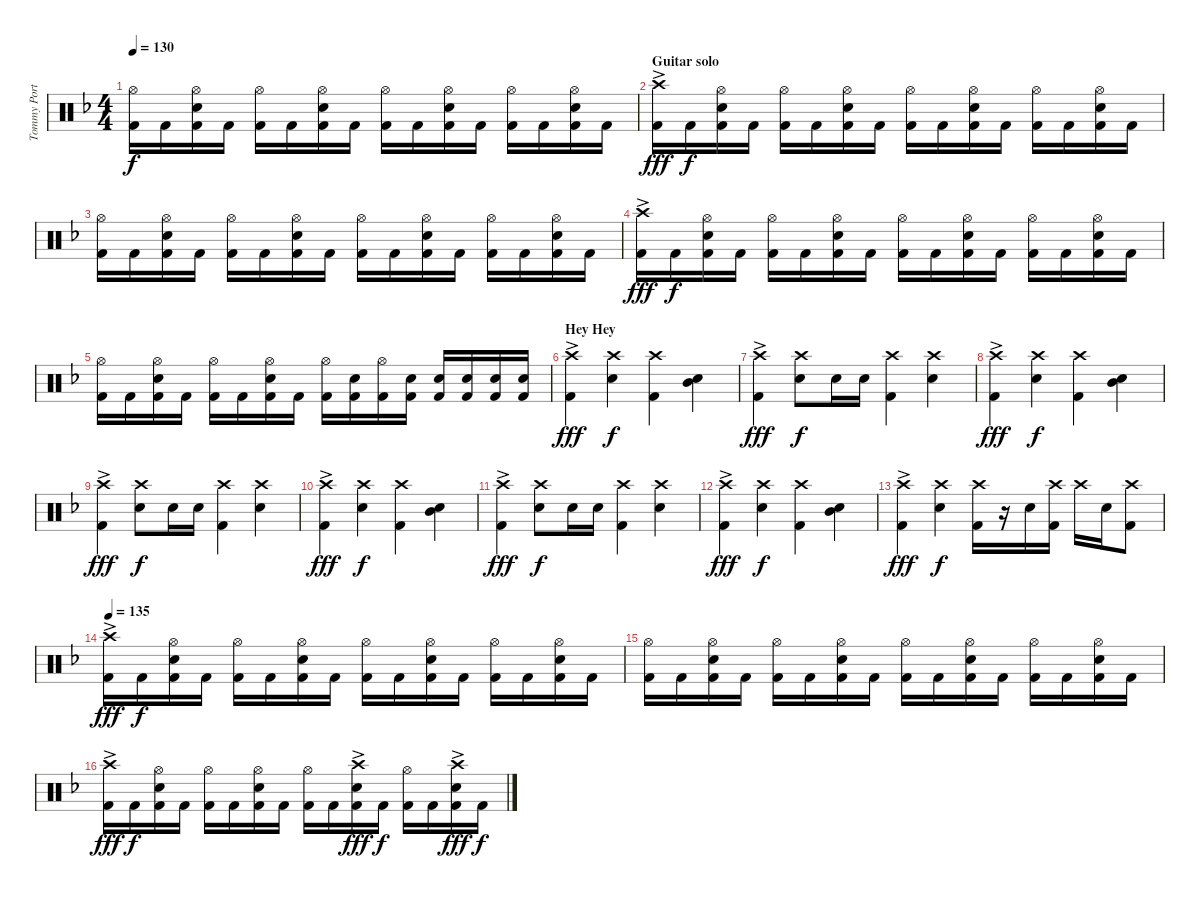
\track ("Tommy Portimo" "Tommy Port") {instrument percussion}
\staff {score}
\articulation defaults
\ts (4 4)
\tempo 130
\clef neutral
\ks dminor
("Hi-Hat (open)" "Kick (hit) 2").16{dy f} "Kick (hit) 2".16 ("Hi-Hat (open)" "Electric Snare (hit)" "Kick (hit) 2").16 "Kick (hit) 2".16 ("Hi-Hat (open)" "Kick (hit) 2").16 "Kick (hit) 2".16 ("Hi-Hat (open)" "Electric Snare (hit)" "Kick (hit) 2").16 "Kick (hit) 2".16 ("Hi-Hat (open)" "Kick (hit) 2").16 "Kick (hit) 2".16 ("Hi-Hat (open)" "Electric Snare (hit)" "Kick (hit) 2").16 "Kick (hit) 2".16 ("Hi-Hat (open)" "Kick (hit) 2").16 "Kick (hit) 2".16 ("Hi-Hat (open)" "Electric Snare (hit)" "Kick (hit) 2").16 "Kick (hit) 2".16 |
\section ("" "Guitar solo")
("Crash high (hit)"{ac} "Kick (hit) 2").16{dy fff} "Kick (hit) 2".16{dy f} ("Hi-Hat (open)" "Electric Snare (hit)" "Kick (hit) 2").16 "Kick (hit) 2".16 ("Hi-Hat (open)" "Kick (hit) 2").16 "Kick (hit) 2".16 ("Hi-Hat (open)" "Electric Snare (hit)" "Kick (hit) 2").16 "Kick (hit) 2".16 ("Hi-Hat (open)" "Kick (hit) 2").16 "Kick (hit) 2".16 ("Hi-Hat (open)" "Electric Snare (hit)" "Kick (hit) 2").16 "Kick (hit) 2".16 ("Hi-Hat (open)" "Kick (hit) 2").16 "Kick (hit) 2".16 ("Hi-Hat (open)" "Electric Snare (hit)" "Kick (hit) 2").16 "Kick (hit) 2".16 |
("Hi-Hat (open)" "Kick (hit) 2").16 "Kick (hit) 2".16 ("Hi-Hat (open)" "Electric Snare (hit)" "Kick (hit) 2").16 "Kick (hit) 2".16 ("Hi-Hat (open)" "Kick (hit) 2").16 "Kick (hit) 2".16 ("Hi-Hat (open)" "Electric Snare (hit)" "Kick (hit) 2").16 "Kick (hit) 2".16 ("Hi-Hat (open)" "Kick (hit) 2").16 "Kick (hit) 2".16 ("Hi-Hat (open)" "Electric Snare (hit)" "Kick (hit) 2").16 "Kick (hit) 2".16 ("Hi-Hat (open)" "Kick (hit) 2").16 "Kick (hit) 2".16 ("Hi-Hat (open)" "Electric Snare (hit)" "Kick (hit) 2").16 "Kick (hit) 2".16 |
("Crash high (hit)"{ac} "Kick (hit) 2").16{dy fff} "Kick (hit) 2".16{dy f} ("Hi-Hat (open)" "Electric Snare (hit)" "Kick (hit) 2").16 "Kick (hit) 2".16 ("Hi-Hat (open)" "Kick (hit) 2").16 "Kick (hit) 2".16 ("Hi-Hat (open)" "Electric Snare (hit)" "Kick (hit) 2").16 "Kick (hit) 2".16 ("Hi-Hat (open)" "Kick (hit) 2").16 "Kick (hit) 2".16 ("Hi-Hat (open)" "Electric Snare (hit)" "Kick (hit) 2").16 "Kick (hit) 2".16 ("Hi-Hat (open)" "Kick (hit) 2").16 "Kick (hit) 2".16 ("Hi-Hat (open)" "Electric Snare (hit)" "Kick (hit) 2").16 "Kick (hit) 2".16 |
("Hi-Hat (open)" "Kick (hit) 2").16 "Kick (hit) 2".16 ("Hi-Hat (open)" "Electric Snare (hit)" "Kick (hit) 2").16 "Kick (hit) 2".16 ("Hi-Hat (open)" "Kick (hit) 2").16 "Kick (hit) 2".16 ("Hi-Hat (open)" "Electric Snare (hit)" "Kick (hit) 2").16 "Kick (hit) 2".16 ("Hi-Hat (open)" "Kick (hit) 2").16 ("Electric Snare (hit)" "Kick (hit) 2").16 ("Hi-Hat (open)" "Kick (hit) 2").16 ("Electric Snare (hit)" "Kick (hit) 2").16 ("Electric Snare (hit)" "Kick (hit) 2").16 ("Electric Snare (hit)" "Kick (hit) 2").16 ("Electric Snare (hit)" "Kick (hit) 2").16 ("Electric Snare (hit)" "Kick (hit) 2").16 |
\section ("" "Hey Hey")
("Crash high (hit)"{ac} "Kick (hit) 2").4{dy fff} ("Crash high (hit)" "Electric Snare (hit)").4{dy f} ("Crash high (hit)" "Kick (hit) 2").4 ("Mid Tom (hit)" "Electric Snare (hit)").4 |
("Crash high (hit)"{ac} "Kick (hit) 2").4{dy fff} ("Crash high (hit)" "Electric Snare (hit)").8{dy f} "Electric Snare (hit)".16 "Electric Snare (hit)".16 ("Crash high (hit)" "Kick (hit) 2").4 ("Crash high (hit)" "Electric Snare (hit)").4 |
("Crash high (hit)"{ac} "Kick (hit) 2").4{dy fff} ("Crash high (hit)" "Electric Snare (hit)").4{dy f} ("Crash high (hit)" "Kick (hit) 2").4 ("Mid Tom (hit)" "Electric Snare (hit)").4 |
("Crash high (hit)"{ac} "Kick (hit) 2").4{dy fff} ("Crash high (hit)" "Electric Snare (hit)").8{dy f} "Electric Snare (hit)".16 "Electric Snare (hit)".16 ("Crash high (hit)" "Kick (hit) 2").4 ("Crash high (hit)" "Electric Snare (hit)").4 |
("Crash high (hit)"{ac} "Kick (hit) 2").4{dy fff} ("Crash high (hit)" "Electric Snare (hit)").4{dy f} ("Crash high (hit)" "Kick (hit) 2").4 ("Mid Tom (hit)" "Electric Snare (hit)").4 |
("Crash high (hit)"{ac} "Kick (hit) 2").4{dy fff} ("Crash high (hit)" "Electric Snare (hit)").8{dy f} "Electric Snare (hit)".16 "Electric Snare (hit)".16 ("Crash high (hit)" "Kick (hit) 2").4 ("Crash high (hit)" "Electric Snare (hit)").4 |
("Crash high (hit)"{ac} "Kick (hit) 2").4{dy fff} ("Crash high (hit)" "Electric Snare (hit)").4{dy f} ("Crash high (hit)" "Kick (hit) 2").4 ("Mid Tom (hit)" "Electric Snare (hit)").4 |
("Crash high (hit)"{ac} "Kick (hit) 2").4{dy fff} ("Crash high (hit)" "Electric Snare (hit)").4{dy f} ("Crash high (hit)" "Kick (hit) 2").16 r.16 "Electric Snare (hit)".16 ("Crash high (hit)" "Kick (hit) 2").16 "Crash high (hit)".16 "Electric Snare (hit)".16 ("Crash high (hit)" "Kick (hit) 2").8 |
\tempo 135
("Crash high (hit)"{ac} "Kick (hit) 2").16{dy fff} "Kick (hit) 2".16{dy f} ("Hi-Hat (open)" "Electric Snare (hit)" "Kick (hit) 2").16 "Kick (hit) 2".16 ("Hi-Hat (open)" "Kick (hit) 2").16 "Kick (hit) 2".16 ("Hi-Hat (open)" "Electric Snare (hit)" "Kick (hit) 2").16 "Kick (hit) 2".16 ("Hi-Hat (open)" "Kick (hit) 2").16 "Kick (hit) 2".16 ("Hi-Hat (open)" "Electric Snare (hit)" "Kick (hit) 2").16 "Kick (hit) 2".16 ("Hi-Hat (open)" "Kick (hit) 2").16 "Kick (hit) 2".16 ("Hi-Hat (open)" "Electric Snare (hit)" "Kick (hit) 2").16 "Kick (hit) 2".16 |
("Hi-Hat (open)" "Kick (hit) 2").16 "Kick (hit) 2".16 ("Hi-Hat (open)" "Electric Snare (hit)" "Kick (hit) 2").16 "Kick (hit) 2".16 ("Hi-Hat (open)" "Kick (hit) 2").16 "Kick (hit) 2".16 ("Hi-Hat (open)" "Electric Snare (hit)" "Kick (hit) 2").16 "Kick (hit) 2".16 ("Hi-Hat (open)" "Kick (hit) 2").16 "Kick (hit) 2".16 ("Hi-Hat (open)" "Electric Snare (hit)" "Kick (hit) 2").16 "Kick (hit) 2".16 ("Hi-Hat (open)" "Kick (hit) 2").16 "Kick (hit) 2".16 ("Hi-Hat (open)" "Electric Snare (hit)" "Kick (hit) 2").16 "Kick (hit) 2".16 |
("Crash high (hit)"{ac} "Kick (hit) 2").16{dy fff} "Kick (hit) 2".16{dy f} ("Hi-Hat (open)" "Electric Snare (hit)" "Kick (hit) 2").16 "Kick (hit) 2".16 ("Hi-Hat (open)" "Kick (hit) 2").16 "Kick (hit) 2".16 ("Hi-Hat (open)" "Electric Snare (hit)" "Kick (hit) 2").16 "Kick (hit) 2".16 ("Hi-Hat (open)" "Kick (hit) 2").16 "Kick (hit) 2".16 ("Crash high (hit)"{ac} "Electric Snare (hit)" "Kick (hit) 2").16{dy fff} "Kick (hit) 2".16{dy f} ("Hi-Hat (open)" "Kick (hit) 2").16 "Kick (hit) 2".16 ("Crash high (hit)"{ac} "Electric Snare (hit)" "Kick (hit) 2").16{dy fff} "Kick (hit) 2".16{dy f}
